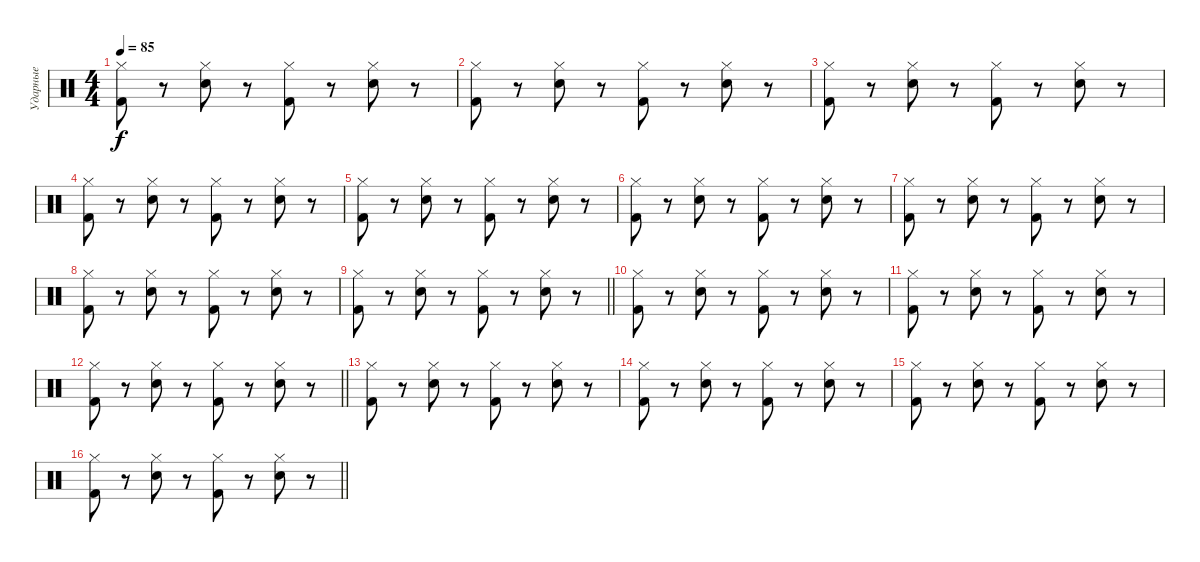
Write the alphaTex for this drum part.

\track ("Ударные" "Ударные") {instrument percussion}
\staff {score}
\articulation defaults
\ts (4 4)
\tempo 85
\clef neutral
\ks c
("Kick (hit) 2" "Hi-Hat (closed)").8{dy f} r.8 ("Electric Snare (hit)" "Hi-Hat (closed)").8 r.8 ("Kick (hit) 2" "Hi-Hat (closed)").8 r.8 ("Electric Snare (hit)" "Hi-Hat (closed)").8 r.8 |
("Kick (hit) 2" "Hi-Hat (closed)").8 r.8 ("Electric Snare (hit)" "Hi-Hat (closed)").8 r.8 ("Kick (hit) 2" "Hi-Hat (closed)").8 r.8 ("Electric Snare (hit)" "Hi-Hat (closed)").8 r.8 |
("Kick (hit) 2" "Hi-Hat (closed)").8 r.8 ("Electric Snare (hit)" "Hi-Hat (closed)").8 r.8 ("Kick (hit) 2" "Hi-Hat (closed)").8 r.8 ("Electric Snare (hit)" "Hi-Hat (closed)").8 r.8 |
("Kick (hit) 2" "Hi-Hat (closed)").8 r.8 ("Electric Snare (hit)" "Hi-Hat (closed)").8 r.8 ("Kick (hit) 2" "Hi-Hat (closed)").8 r.8 ("Electric Snare (hit)" "Hi-Hat (closed)").8 r.8 |
("Kick (hit) 2" "Hi-Hat (closed)").8 r.8 ("Electric Snare (hit)" "Hi-Hat (closed)").8 r.8 ("Kick (hit) 2" "Hi-Hat (closed)").8 r.8 ("Electric Snare (hit)" "Hi-Hat (closed)").8 r.8 |
("Kick (hit) 2" "Hi-Hat (closed)").8 r.8 ("Electric Snare (hit)" "Hi-Hat (closed)").8 r.8 ("Kick (hit) 2" "Hi-Hat (closed)").8 r.8 ("Electric Snare (hit)" "Hi-Hat (closed)").8 r.8 |
("Kick (hit) 2" "Hi-Hat (closed)").8 r.8 ("Electric Snare (hit)" "Hi-Hat (closed)").8 r.8 ("Kick (hit) 2" "Hi-Hat (closed)").8 r.8 ("Electric Snare (hit)" "Hi-Hat (closed)").8 r.8 |
("Kick (hit) 2" "Hi-Hat (closed)").8 r.8 ("Electric Snare (hit)" "Hi-Hat (closed)").8 r.8 ("Kick (hit) 2" "Hi-Hat (closed)").8 r.8 ("Electric Snare (hit)" "Hi-Hat (closed)").8 r.8 |
\barLineRight lightlight
("Kick (hit) 2" "Hi-Hat (closed)").8 r.8 ("Electric Snare (hit)" "Hi-Hat (closed)").8 r.8 ("Kick (hit) 2" "Hi-Hat (closed)").8 r.8 ("Electric Snare (hit)" "Hi-Hat (closed)").8 r.8 |
("Kick (hit) 2" "Hi-Hat (closed)").8 r.8 ("Electric Snare (hit)" "Hi-Hat (closed)").8 r.8 ("Kick (hit) 2" "Hi-Hat (closed)").8 r.8 ("Electric Snare (hit)" "Hi-Hat (closed)").8 r.8 |
("Kick (hit) 2" "Hi-Hat (closed)").8 r.8 ("Electric Snare (hit)" "Hi-Hat (closed)").8 r.8 ("Kick (hit) 2" "Hi-Hat (closed)").8 r.8 ("Electric Snare (hit)" "Hi-Hat (closed)").8 r.8 |
\barLineRight lightlight
("Kick (hit) 2" "Hi-Hat (closed)").8 r.8 ("Electric Snare (hit)" "Hi-Hat (closed)").8 r.8 ("Kick (hit) 2" "Hi-Hat (closed)").8 r.8 ("Electric Snare (hit)" "Hi-Hat (closed)").8 r.8 |
("Kick (hit) 2" "Hi-Hat (closed)").8 r.8 ("Electric Snare (hit)" "Hi-Hat (closed)").8 r.8 ("Kick (hit) 2" "Hi-Hat (closed)").8 r.8 ("Electric Snare (hit)" "Hi-Hat (closed)").8 r.8 |
("Kick (hit) 2" "Hi-Hat (closed)").8 r.8 ("Electric Snare (hit)" "Hi-Hat (closed)").8 r.8 ("Kick (hit) 2" "Hi-Hat (closed)").8 r.8 ("Electric Snare (hit)" "Hi-Hat (closed)").8 r.8 |
("Kick (hit) 2" "Hi-Hat (closed)").8 r.8 ("Electric Snare (hit)" "Hi-Hat (closed)").8 r.8 ("Kick (hit) 2" "Hi-Hat (closed)").8 r.8 ("Electric Snare (hit)" "Hi-Hat (closed)").8 r.8 |
\barLineRight lightlight
("Kick (hit) 2" "Hi-Hat (closed)").8 r.8 ("Electric Snare (hit)" "Hi-Hat (closed)").8 r.8 ("Kick (hit) 2" "Hi-Hat (closed)").8 r.8 ("Electric Snare (hit)" "Hi-Hat (closed)").8 r.8
